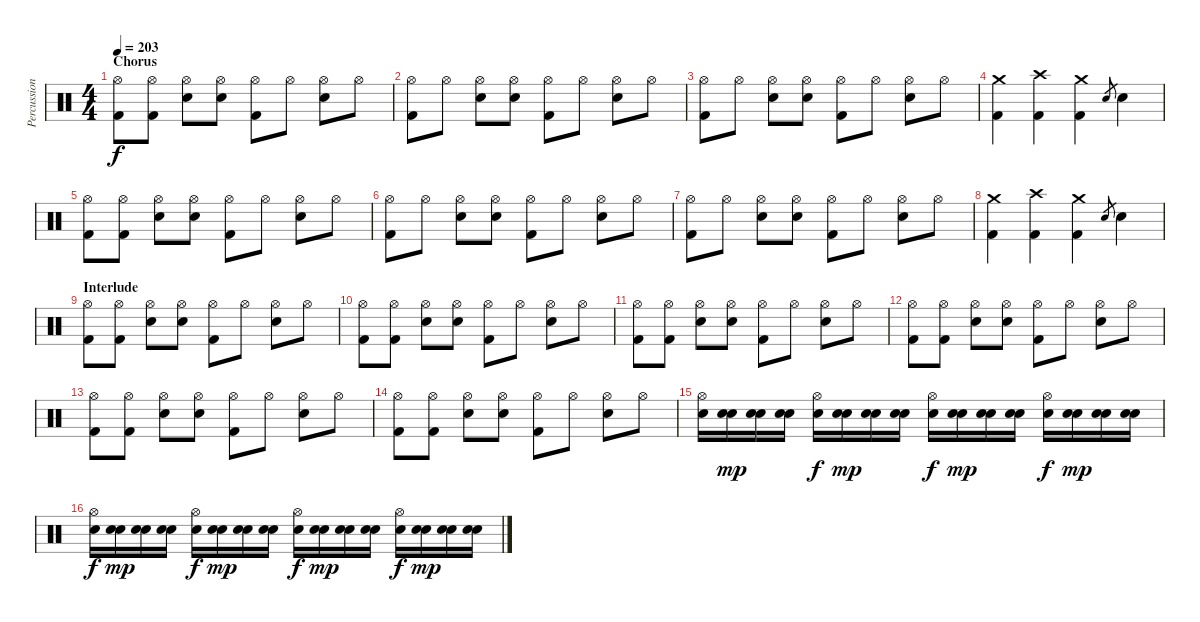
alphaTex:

\track ("Percussion" "Percussion") {instrument percussion}
\staff {score}
\articulation defaults
\ts (4 4)
\section ("" "Chorus")
\tempo 203
\clef neutral
\ks c
("Hi-Hat (open)" "Kick (hit) 2").8{dy f} ("Hi-Hat (open)" "Kick (hit) 2").8 ("Hi-Hat (open)" "Electric Snare (hit)").8 ("Hi-Hat (open)" "Electric Snare (hit)").8 ("Hi-Hat (open)" "Kick (hit) 2").8 "Hi-Hat (open)".8 ("Hi-Hat (open)" "Electric Snare (hit)").8 "Hi-Hat (open)".8 |
("Hi-Hat (open)" "Kick (hit) 2").8 "Hi-Hat (open)".8 ("Hi-Hat (open)" "Electric Snare (hit)").8 ("Hi-Hat (open)" "Electric Snare (hit)").8 ("Hi-Hat (open)" "Kick (hit) 2").8 "Hi-Hat (open)".8 ("Hi-Hat (open)" "Electric Snare (hit)").8 "Hi-Hat (open)".8 |
("Hi-Hat (open)" "Kick (hit) 2").8 "Hi-Hat (open)".8 ("Hi-Hat (open)" "Electric Snare (hit)").8 ("Hi-Hat (open)" "Electric Snare (hit)").8 ("Hi-Hat (open)" "Kick (hit) 2").8 "Hi-Hat (open)".8 ("Hi-Hat (open)" "Electric Snare (hit)").8 "Hi-Hat (open)".8 |
("Crash medium (hit)" "Kick (hit) 2").4 ("Crash high (hit)" "Kick (hit) 2").4 ("Crash medium (hit)" "Kick (hit) 2").4 "Electric Snare (hit)".8{gr} "Electric Snare (hit)".4 |
("Hi-Hat (open)" "Kick (hit) 2").8 ("Hi-Hat (open)" "Kick (hit) 2").8 ("Hi-Hat (open)" "Electric Snare (hit)").8 ("Hi-Hat (open)" "Electric Snare (hit)").8 ("Hi-Hat (open)" "Kick (hit) 2").8 "Hi-Hat (open)".8 ("Hi-Hat (open)" "Electric Snare (hit)").8 "Hi-Hat (open)".8 |
("Hi-Hat (open)" "Kick (hit) 2").8 "Hi-Hat (open)".8 ("Hi-Hat (open)" "Electric Snare (hit)").8 ("Hi-Hat (open)" "Electric Snare (hit)").8 ("Hi-Hat (open)" "Kick (hit) 2").8 "Hi-Hat (open)".8 ("Hi-Hat (open)" "Electric Snare (hit)").8 "Hi-Hat (open)".8 |
("Hi-Hat (open)" "Kick (hit) 2").8 "Hi-Hat (open)".8 ("Hi-Hat (open)" "Electric Snare (hit)").8 ("Hi-Hat (open)" "Electric Snare (hit)").8 ("Hi-Hat (open)" "Kick (hit) 2").8 "Hi-Hat (open)".8 ("Hi-Hat (open)" "Electric Snare (hit)").8 "Hi-Hat (open)".8 |
("Crash medium (hit)" "Kick (hit) 2").4 ("Crash high (hit)" "Kick (hit) 2").4 ("Crash medium (hit)" "Kick (hit) 2").4 "Electric Snare (hit)".8{gr} "Electric Snare (hit)".4 |
\section ("" "Interlude")
("Hi-Hat (open)" "Kick (hit) 2").8 ("Hi-Hat (open)" "Kick (hit) 2").8 ("Hi-Hat (open)" "Electric Snare (hit)").8 ("Hi-Hat (open)" "Electric Snare (hit)").8 ("Hi-Hat (open)" "Kick (hit) 2").8 "Hi-Hat (open)".8 ("Hi-Hat (open)" "Electric Snare (hit)").8 "Hi-Hat (open)".8 |
("Hi-Hat (open)" "Kick (hit) 2").8 ("Hi-Hat (open)" "Kick (hit) 2").8 ("Hi-Hat (open)" "Electric Snare (hit)").8 ("Hi-Hat (open)" "Electric Snare (hit)").8 ("Hi-Hat (open)" "Kick (hit) 2").8 "Hi-Hat (open)".8 ("Hi-Hat (open)" "Electric Snare (hit)").8 "Hi-Hat (open)".8 |
("Hi-Hat (open)" "Kick (hit) 2").8 ("Hi-Hat (open)" "Kick (hit) 2").8 ("Hi-Hat (open)" "Electric Snare (hit)").8 ("Hi-Hat (open)" "Electric Snare (hit)").8 ("Hi-Hat (open)" "Kick (hit) 2").8 "Hi-Hat (open)".8 ("Hi-Hat (open)" "Electric Snare (hit)").8 "Hi-Hat (open)".8 |
("Hi-Hat (open)" "Kick (hit) 2").8 ("Hi-Hat (open)" "Kick (hit) 2").8 ("Hi-Hat (open)" "Electric Snare (hit)").8 ("Hi-Hat (open)" "Electric Snare (hit)").8 ("Hi-Hat (open)" "Kick (hit) 2").8 "Hi-Hat (open)".8 ("Hi-Hat (open)" "Electric Snare (hit)").8 "Hi-Hat (open)".8 |
("Hi-Hat (open)" "Kick (hit) 2").8 ("Hi-Hat (open)" "Kick (hit) 2").8 ("Hi-Hat (open)" "Electric Snare (hit)").8 ("Hi-Hat (open)" "Electric Snare (hit)").8 ("Hi-Hat (open)" "Kick (hit) 2").8 "Hi-Hat (open)".8 ("Hi-Hat (open)" "Electric Snare (hit)").8 "Hi-Hat (open)".8 |
("Hi-Hat (open)" "Kick (hit) 2").8 ("Hi-Hat (open)" "Kick (hit) 2").8 ("Hi-Hat (open)" "Electric Snare (hit)").8 ("Hi-Hat (open)" "Electric Snare (hit)").8 ("Hi-Hat (open)" "Kick (hit) 2").8 "Hi-Hat (open)".8 ("Hi-Hat (open)" "Electric Snare (hit)").8 "Hi-Hat (open)".8 |
("Hi-Hat (open)" "Electric Snare (hit)").16 ("Snare (hit) 2" "Electric Snare (hit)").16{dy mp} ("Snare (hit) 2" "Electric Snare (hit)").16 ("Snare (hit) 2" "Electric Snare (hit)").16 ("Hi-Hat (open)" "Electric Snare (hit)").16{dy f} ("Electric Snare (hit)" "Snare (hit) 2").16{dy mp} ("Electric Snare (hit)" "Snare (hit) 2").16 ("Electric Snare (hit)" "Snare (hit) 2").16 ("Hi-Hat (open)" "Electric Snare (hit)").16{dy f} ("Electric Snare (hit)" "Snare (hit) 2").16{dy mp} ("Electric Snare (hit)" "Snare (hit) 2").16 ("Electric Snare (hit)" "Snare (hit) 2").16 ("Hi-Hat (open)" "Electric Snare (hit)").16{dy f} ("Electric Snare (hit)" "Snare (hit) 2").16{dy mp} ("Electric Snare (hit)" "Snare (hit) 2").16 ("Electric Snare (hit)" "Snare (hit) 2").16 |
("Hi-Hat (open)" "Electric Snare (hit)").16{dy f} ("Snare (hit) 2" "Electric Snare (hit)").16{dy mp} ("Snare (hit) 2" "Electric Snare (hit)").16 ("Snare (hit) 2" "Electric Snare (hit)").16 ("Hi-Hat (open)" "Electric Snare (hit)").16{dy f} ("Electric Snare (hit)" "Snare (hit) 2").16{dy mp} ("Electric Snare (hit)" "Snare (hit) 2").16 ("Electric Snare (hit)" "Snare (hit) 2").16 ("Hi-Hat (open)" "Electric Snare (hit)").16{dy f} ("Electric Snare (hit)" "Snare (hit) 2").16{dy mp} ("Electric Snare (hit)" "Snare (hit) 2").16 ("Electric Snare (hit)" "Snare (hit) 2").16 ("Hi-Hat (open)" "Electric Snare (hit)").16{dy f} ("Electric Snare (hit)" "Snare (hit) 2").16{dy mp} ("Electric Snare (hit)" "Snare (hit) 2").16 ("Electric Snare (hit)" "Snare (hit) 2").16
